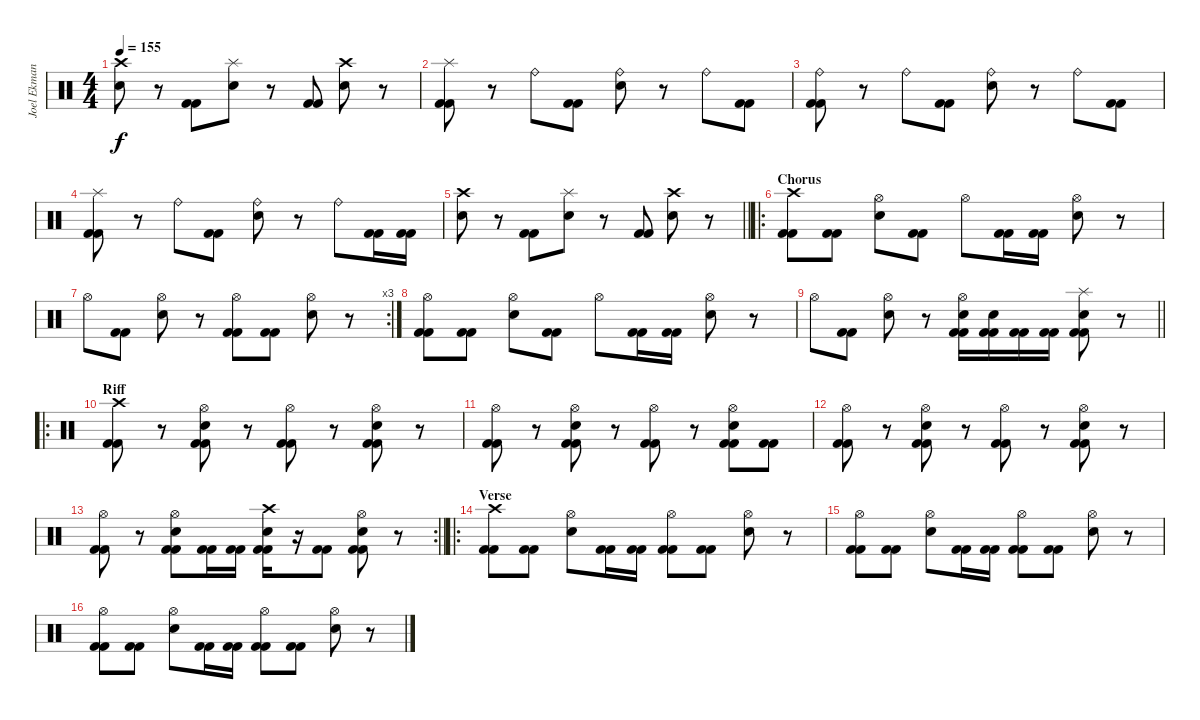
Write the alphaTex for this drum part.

\track ("Joel Ekman-percussion tab" "Joel Ekman") {instrument percussion}
\staff {score}
\articulation defaults
\ts (4 4)
\tempo 155
\clef neutral
\ks c
("Crash high (hit)" "Snare (hit) 2").8{dy f} r.8 ("Kick (hit) 2" "Kick (hit) 2").8 ("Splash (hit)" "Snare (hit) 2").8 r.8 ("Kick (hit) 2" "Kick (hit) 2").8 ("Crash high (hit)" "Snare (hit) 2").8 r.8 |
("Splash (hit)" "Kick (hit) 2" "Kick (hit) 2").8 r.8 "Ride (bell)".8 ("Kick (hit) 2" "Kick (hit) 2").8 ("Ride (bell)" "Snare (hit) 2").8 r.8 "Ride (bell)".8 ("Kick (hit) 2" "Kick (hit) 2").8 |
("Ride (bell)" "Kick (hit) 2" "Kick (hit) 2").8 r.8 "Ride (bell)".8 ("Kick (hit) 2" "Kick (hit) 2").8 ("Ride (bell)" "Snare (hit) 2").8 r.8 "Ride (bell)".8 ("Kick (hit) 2" "Kick (hit) 2").8 |
("Splash (hit)" "Kick (hit) 2" "Kick (hit) 2").8 r.8 "Ride (bell)".8 ("Kick (hit) 2" "Kick (hit) 2").8 ("Ride (bell)" "Snare (hit) 2").8 r.8 "Ride (bell)".8 ("Kick (hit) 2" "Kick (hit) 2").16 ("Kick (hit) 2" "Kick (hit) 2").16 |
\barLineRight lightlight
("Crash high (hit)" "Snare (hit) 2").8 r.8 ("Kick (hit) 2" "Kick (hit) 2").8 ("Splash (hit)" "Snare (hit) 2").8 r.8 ("Kick (hit) 2" "Kick (hit) 2").8 ("Crash high (hit)" "Snare (hit) 2").8 r.8 |
\ro
\section ("" "Chorus")
("Crash high (hit)" "Kick (hit) 2" "Kick (hit) 2").8 ("Kick (hit) 2" "Kick (hit) 2").8 ("Hi-Hat (open)" "Snare (hit) 2").8 ("Kick (hit) 2" "Kick (hit) 2").8 "Hi-Hat (open)".8 ("Kick (hit) 2" "Kick (hit) 2").16 ("Kick (hit) 2" "Kick (hit) 2").16 ("Hi-Hat (open)" "Snare (hit) 2").8 r.8 |
\rc 3 "Hi-Hat (open)".8
("Kick (hit) 2" "Kick (hit) 2").8 ("Hi-Hat (open)" "Snare (hit) 2").8 r.8 ("Hi-Hat (open)" "Kick (hit) 2" "Kick (hit) 2").8 ("Kick (hit) 2" "Kick (hit) 2").8 ("Hi-Hat (open)" "Snare (hit) 2").8 r.8 |
("Hi-Hat (open)" "Kick (hit) 2" "Kick (hit) 2").8 ("Kick (hit) 2" "Kick (hit) 2").8 ("Hi-Hat (open)" "Snare (hit) 2").8 ("Kick (hit) 2" "Kick (hit) 2").8 "Hi-Hat (open)".8 ("Kick (hit) 2" "Kick (hit) 2").16 ("Kick (hit) 2" "Kick (hit) 2").16 ("Hi-Hat (open)" "Snare (hit) 2").8 r.8 |
\barLineRight lightlight "Hi-Hat (open)".8
("Kick (hit) 2" "Kick (hit) 2").8 ("Hi-Hat (open)" "Snare (hit) 2").8 r.8 ("Hi-Hat (open)" "Snare (hit) 2" "Kick (hit) 2" "Kick (hit) 2").16 ("Snare (hit) 2" "Kick (hit) 2" "Kick (hit) 2").16 ("Kick (hit) 2" "Kick (hit) 2").16 ("Kick (hit) 2" "Kick (hit) 2").16 ("Splash (hit)" "Snare (hit) 2" "Kick (hit) 2" "Kick (hit) 2").8 r.8 |
\ro
\section ("" "Riff")
("Crash high (hit)" "Kick (hit) 2" "Kick (hit) 2").8 r.8 ("Hi-Hat (open)" "Snare (hit) 2" "Kick (hit) 2" "Kick (hit) 2").8 r.8 ("Hi-Hat (open)" "Kick (hit) 2" "Kick (hit) 2").8 r.8 ("Hi-Hat (open)" "Snare (hit) 2" "Kick (hit) 2" "Kick (hit) 2").8 r.8 |
("Hi-Hat (open)" "Kick (hit) 2" "Kick (hit) 2").8 r.8 ("Hi-Hat (open)" "Snare (hit) 2" "Kick (hit) 2" "Kick (hit) 2").8 r.8 ("Hi-Hat (open)" "Kick (hit) 2" "Kick (hit) 2").8 r.8 ("Hi-Hat (open)" "Snare (hit) 2" "Kick (hit) 2" "Kick (hit) 2").8 ("Kick (hit) 2" "Kick (hit) 2").8 |
("Hi-Hat (open)" "Kick (hit) 2" "Kick (hit) 2").8 r.8 ("Hi-Hat (open)" "Snare (hit) 2" "Kick (hit) 2" "Kick (hit) 2").8 r.8 ("Hi-Hat (open)" "Kick (hit) 2" "Kick (hit) 2").8 r.8 ("Hi-Hat (open)" "Snare (hit) 2" "Kick (hit) 2" "Kick (hit) 2").8 r.8 |
\rc 2
\barLineRight lightlight
("Hi-Hat (open)" "Kick (hit) 2" "Kick (hit) 2").8 r.8 ("Hi-Hat (open)" "Snare (hit) 2" "Kick (hit) 2" "Kick (hit) 2").8 ("Kick (hit) 2" "Kick (hit) 2").16 ("Kick (hit) 2" "Kick (hit) 2").16 ("Crash high (hit)" "Snare (hit) 2" "Kick (hit) 2" "Kick (hit) 2").16 r.16 ("Kick (hit) 2" "Kick (hit) 2").8 ("Hi-Hat (open)" "Snare (hit) 2" "Kick (hit) 2" "Kick (hit) 2").8 r.8 |
\ro
\section ("" "Verse")
("Crash high (hit)" "Kick (hit) 2" "Kick (hit) 2").8 ("Kick (hit) 2" "Kick (hit) 2").8 ("Hi-Hat (open)" "Snare (hit) 2").8 ("Kick (hit) 2" "Kick (hit) 2").16 ("Kick (hit) 2" "Kick (hit) 2").16 ("Hi-Hat (open)" "Kick (hit) 2" "Kick (hit) 2").8 ("Kick (hit) 2" "Kick (hit) 2").8 ("Hi-Hat (open)" "Snare (hit) 2").8 r.8 |
("Hi-Hat (open)" "Kick (hit) 2" "Kick (hit) 2").8 ("Kick (hit) 2" "Kick (hit) 2").8 ("Hi-Hat (open)" "Snare (hit) 2").8 ("Kick (hit) 2" "Kick (hit) 2").16 ("Kick (hit) 2" "Kick (hit) 2").16 ("Hi-Hat (open)" "Kick (hit) 2" "Kick (hit) 2").8 ("Kick (hit) 2" "Kick (hit) 2").8 ("Hi-Hat (open)" "Snare (hit) 2").8 r.8 |
("Hi-Hat (open)" "Kick (hit) 2" "Kick (hit) 2").8 ("Kick (hit) 2" "Kick (hit) 2").8 ("Hi-Hat (open)" "Snare (hit) 2").8 ("Kick (hit) 2" "Kick (hit) 2").16 ("Kick (hit) 2" "Kick (hit) 2").16 ("Hi-Hat (open)" "Kick (hit) 2" "Kick (hit) 2").8 ("Kick (hit) 2" "Kick (hit) 2").8 ("Hi-Hat (open)" "Snare (hit) 2").8 r.8
